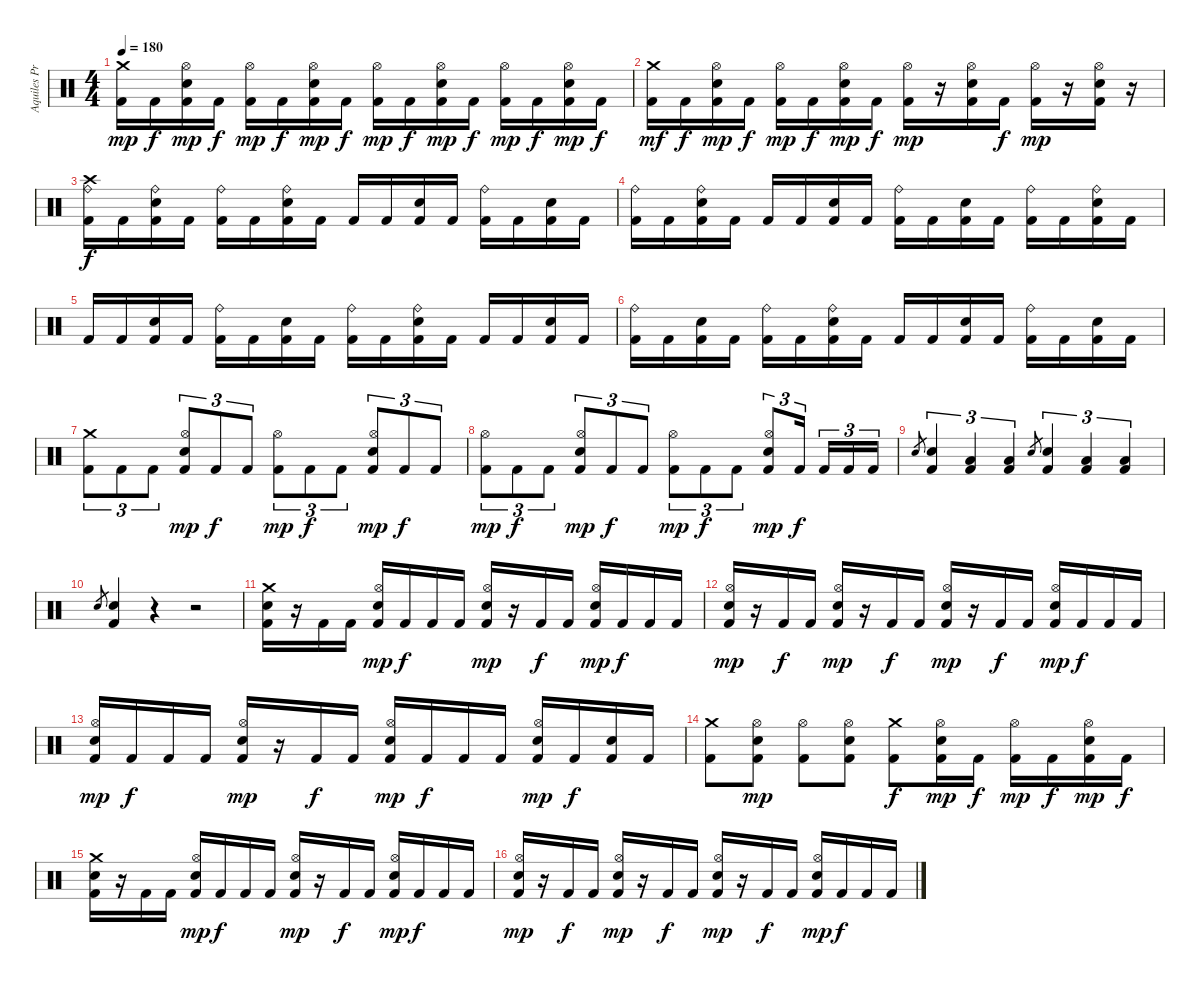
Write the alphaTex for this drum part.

\track ("Aquiles Priester" "Aquiles Pr") {instrument percussion}
\staff {score}
\articulation defaults
\ts (4 4)
\tempo 180
\clef neutral
\ks c
("Crash medium (hit)" "Kick (hit) 2").16{dy mp} "Kick (hit) 2".16{dy f} ("Hi-Hat (open)" "Snare (hit) 2" "Kick (hit) 2").16{dy mp} "Kick (hit) 2".16{dy f} ("Hi-Hat (open)" "Kick (hit) 2").16{dy mp} "Kick (hit) 2".16{dy f} ("Hi-Hat (open)" "Snare (hit) 2" "Kick (hit) 2").16{dy mp} "Kick (hit) 2".16{dy f} ("Hi-Hat (open)" "Kick (hit) 2").16{dy mp} "Kick (hit) 2".16{dy f} ("Hi-Hat (open)" "Snare (hit) 2" "Kick (hit) 2").16{dy mp} "Kick (hit) 2".16{dy f} ("Hi-Hat (open)" "Kick (hit) 2").16{dy mp} "Kick (hit) 2".16{dy f} ("Hi-Hat (open)" "Snare (hit) 2" "Kick (hit) 2").16{dy mp} "Kick (hit) 2".16{dy f} |
("Crash medium (hit)" "Kick (hit) 2").16{dy mf} "Kick (hit) 2".16{dy f} ("Hi-Hat (open)" "Snare (hit) 2" "Kick (hit) 2").16{dy mp} "Kick (hit) 2".16{dy f} ("Hi-Hat (open)" "Kick (hit) 2").16{dy mp} "Kick (hit) 2".16{dy f} ("Hi-Hat (open)" "Snare (hit) 2" "Kick (hit) 2").16{dy mp} "Kick (hit) 2".16{dy f} ("Hi-Hat (open)" "Kick (hit) 2").16{dy mp} r.16 ("Hi-Hat (open)" "Snare (hit) 2" "Kick (hit) 2").16 "Kick (hit) 2".16{dy f} ("Hi-Hat (open)" "Kick (hit) 2").16{dy mp} r.16 ("Hi-Hat (open)" "Snare (hit) 2" "Kick (hit) 2").16 r.16 |
("Crash high (hit)" "Ride (bell)" "Kick (hit) 2").16{dy f} "Kick (hit) 2".16 ("Ride (bell)" "Snare (hit) 2" "Kick (hit) 2").16 "Kick (hit) 2".16 ("Ride (bell)" "Kick (hit) 2").16 "Kick (hit) 2".16 ("Ride (bell)" "Snare (hit) 2" "Kick (hit) 2").16 "Kick (hit) 2".16 "Kick (hit) 2".16 "Kick (hit) 2".16 ("Snare (hit) 2" "Kick (hit) 2").16 "Kick (hit) 2".16 ("Ride (bell)" "Kick (hit) 2").16 "Kick (hit) 2".16 ("Snare (hit) 2" "Kick (hit) 2").16 "Kick (hit) 2".16 |
("Ride (bell)" "Kick (hit) 2").16 "Kick (hit) 2".16 ("Ride (bell)" "Snare (hit) 2" "Kick (hit) 2").16 "Kick (hit) 2".16 "Kick (hit) 2".16 "Kick (hit) 2".16 ("Snare (hit) 2" "Kick (hit) 2").16 "Kick (hit) 2".16 ("Ride (bell)" "Kick (hit) 2").16 "Kick (hit) 2".16 ("Snare (hit) 2" "Kick (hit) 2").16 "Kick (hit) 2".16 ("Ride (bell)" "Kick (hit) 2").16 "Kick (hit) 2".16 ("Ride (bell)" "Snare (hit) 2" "Kick (hit) 2").16 "Kick (hit) 2".16 |
"Kick (hit) 2".16 "Kick (hit) 2".16 ("Snare (hit) 2" "Kick (hit) 2").16 "Kick (hit) 2".16 ("Ride (bell)" "Kick (hit) 2").16 "Kick (hit) 2".16 ("Snare (hit) 2" "Kick (hit) 2").16 "Kick (hit) 2".16 ("Ride (bell)" "Kick (hit) 2").16 "Kick (hit) 2".16 ("Ride (bell)" "Snare (hit) 2" "Kick (hit) 2").16 "Kick (hit) 2".16 "Kick (hit) 2".16 "Kick (hit) 2".16 ("Snare (hit) 2" "Kick (hit) 2").16 "Kick (hit) 2".16 |
("Ride (bell)" "Kick (hit) 2").16 "Kick (hit) 2".16 ("Snare (hit) 2" "Kick (hit) 2").16 "Kick (hit) 2".16 ("Ride (bell)" "Kick (hit) 2").16 "Kick (hit) 2".16 ("Ride (bell)" "Snare (hit) 2" "Kick (hit) 2").16 "Kick (hit) 2".16 "Kick (hit) 2".16 "Kick (hit) 2".16 ("Snare (hit) 2" "Kick (hit) 2").16 "Kick (hit) 2".16 ("Ride (bell)" "Kick (hit) 2").16 "Kick (hit) 2".16 ("Snare (hit) 2" "Kick (hit) 2").16 "Kick (hit) 2".16 |
("Crash medium (hit)" "Kick (hit) 2").8{tu (3 2)} "Kick (hit) 2".8{tu (3 2)} "Kick (hit) 2".8{tu (3 2)} ("Hi-Hat (open)" "Snare (hit) 2" "Kick (hit) 2").8{tu (3 2) dy mp} "Kick (hit) 2".8{tu (3 2) dy f} "Kick (hit) 2".8{tu (3 2)} ("Hi-Hat (open)" "Kick (hit) 2").8{tu (3 2) dy mp} "Kick (hit) 2".8{tu (3 2) dy f} "Kick (hit) 2".8{tu (3 2)} ("Hi-Hat (open)" "Snare (hit) 2" "Kick (hit) 2").8{tu (3 2) dy mp} "Kick (hit) 2".8{tu (3 2) dy f} "Kick (hit) 2".8{tu (3 2)} |
("Hi-Hat (open)" "Kick (hit) 2").8{tu (3 2) dy mp} "Kick (hit) 2".8{tu (3 2) dy f} "Kick (hit) 2".8{tu (3 2)} ("Hi-Hat (open)" "Snare (hit) 2" "Kick (hit) 2").8{tu (3 2) dy mp} "Kick (hit) 2".8{tu (3 2) dy f} "Kick (hit) 2".8{tu (3 2)} ("Hi-Hat (open)" "Kick (hit) 2").8{tu (3 2) dy mp} "Kick (hit) 2".8{tu (3 2) dy f} "Kick (hit) 2".8{tu (3 2)} ("Hi-Hat (open)" "Snare (hit) 2" "Kick (hit) 2").8{tu (3 2) dy mp} "Kick (hit) 2".16{tu (3 2) dy f beam splitsecondary} "Kick (hit) 2".16{tu (3 2)} "Kick (hit) 2".16{tu (3 2)} "Kick (hit) 2".16{tu (3 2)} |
"Snare (hit) 2".8{gr} ("Snare (hit) 2" "Kick (hit) 2").4{tu (3 2)} ("Low Floor Tom (hit)" "Kick (hit) 2").4{tu (3 2)} ("Low Floor Tom (hit)" "Kick (hit) 2").4{tu (3 2)} "Snare (hit) 2".8{gr} ("Snare (hit) 2" "Kick (hit) 2").4{tu (3 2)} ("Low Floor Tom (hit)" "Kick (hit) 2").4{tu (3 2)} ("Low Floor Tom (hit)" "Kick (hit) 2").4{tu (3 2)} |
"Snare (hit) 2".8{gr} ("Snare (hit) 2" "Kick (hit) 2").4 r.4 r.2 |
("Crash medium (hit)" "Snare (hit) 2" "Kick (hit) 2").16 r.16 "Kick (hit) 2".16 "Kick (hit) 2".16 ("Hi-Hat (open)" "Snare (hit) 2" "Kick (hit) 2").16{dy mp} "Kick (hit) 2".16{dy f} "Kick (hit) 2".16 "Kick (hit) 2".16 ("Hi-Hat (open)" "Snare (hit) 2" "Kick (hit) 2").16{dy mp} r.16 "Kick (hit) 2".16{dy f} "Kick (hit) 2".16 ("Hi-Hat (open)" "Snare (hit) 2" "Kick (hit) 2").16{dy mp} "Kick (hit) 2".16{dy f} "Kick (hit) 2".16 "Kick (hit) 2".16 |
("Hi-Hat (open)" "Snare (hit) 2" "Kick (hit) 2").16{dy mp} r.16 "Kick (hit) 2".16{dy f} "Kick (hit) 2".16 ("Hi-Hat (open)" "Snare (hit) 2" "Kick (hit) 2").16{dy mp} r.16 "Kick (hit) 2".16{dy f} "Kick (hit) 2".16 ("Hi-Hat (open)" "Snare (hit) 2" "Kick (hit) 2").16{dy mp} r.16 "Kick (hit) 2".16{dy f} "Kick (hit) 2".16 ("Hi-Hat (open)" "Snare (hit) 2" "Kick (hit) 2").16{dy mp} "Kick (hit) 2".16{dy f} "Kick (hit) 2".16 "Kick (hit) 2".16 |
("Hi-Hat (open)" "Snare (hit) 2" "Kick (hit) 2").16{dy mp} "Kick (hit) 2".16{dy f} "Kick (hit) 2".16 "Kick (hit) 2".16 ("Hi-Hat (open)" "Snare (hit) 2" "Kick (hit) 2").16{dy mp} r.16 "Kick (hit) 2".16{dy f} "Kick (hit) 2".16 ("Hi-Hat (open)" "Snare (hit) 2" "Kick (hit) 2").16{dy mp} "Kick (hit) 2".16{dy f} "Kick (hit) 2".16 "Kick (hit) 2".16 ("Hi-Hat (open)" "Snare (hit) 2" "Kick (hit) 2").16{dy mp} "Kick (hit) 2".16{dy f} ("Snare (hit) 2" "Kick (hit) 2").16 "Kick (hit) 2".16 |
("Crash medium (hit)" "Kick (hit) 2").8 ("Hi-Hat (open)" "Snare (hit) 2" "Kick (hit) 2").8{dy mp} ("Hi-Hat (open)" "Kick (hit) 2").8 ("Hi-Hat (open)" "Snare (hit) 2" "Kick (hit) 2").8 ("Crash medium (hit)" "Kick (hit) 2").8{dy f} ("Hi-Hat (open)" "Snare (hit) 2" "Kick (hit) 2").16{dy mp} "Kick (hit) 2".16{dy f} ("Hi-Hat (open)" "Kick (hit) 2").16{dy mp} "Kick (hit) 2".16{dy f} ("Hi-Hat (open)" "Snare (hit) 2" "Kick (hit) 2").16{dy mp} "Kick (hit) 2".16{dy f} |
("Crash medium (hit)" "Snare (hit) 2" "Kick (hit) 2").16 r.16 "Kick (hit) 2".16 "Kick (hit) 2".16 ("Hi-Hat (open)" "Snare (hit) 2" "Kick (hit) 2").16{dy mp} "Kick (hit) 2".16{dy f} "Kick (hit) 2".16 "Kick (hit) 2".16 ("Hi-Hat (open)" "Snare (hit) 2" "Kick (hit) 2").16{dy mp} r.16 "Kick (hit) 2".16{dy f} "Kick (hit) 2".16 ("Hi-Hat (open)" "Snare (hit) 2" "Kick (hit) 2").16{dy mp} "Kick (hit) 2".16{dy f} "Kick (hit) 2".16 "Kick (hit) 2".16 |
("Hi-Hat (open)" "Snare (hit) 2" "Kick (hit) 2").16{dy mp} r.16 "Kick (hit) 2".16{dy f} "Kick (hit) 2".16 ("Hi-Hat (open)" "Snare (hit) 2" "Kick (hit) 2").16{dy mp} r.16 "Kick (hit) 2".16{dy f} "Kick (hit) 2".16 ("Hi-Hat (open)" "Snare (hit) 2" "Kick (hit) 2").16{dy mp} r.16 "Kick (hit) 2".16{dy f} "Kick (hit) 2".16 ("Hi-Hat (open)" "Snare (hit) 2" "Kick (hit) 2").16{dy mp} "Kick (hit) 2".16{dy f} "Kick (hit) 2".16 "Kick (hit) 2".16
